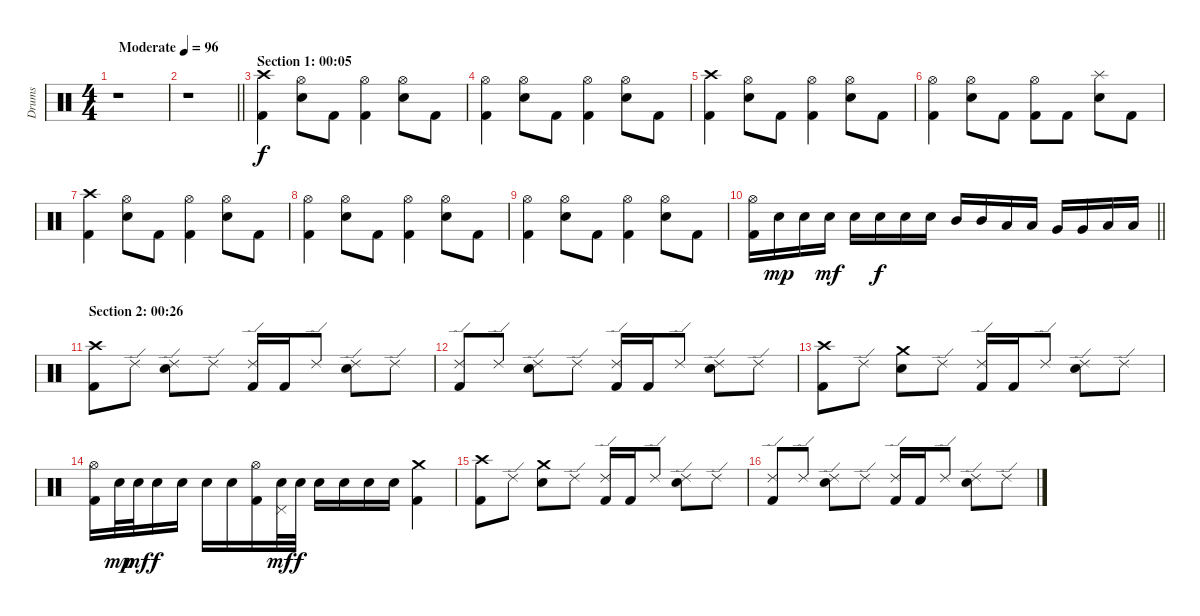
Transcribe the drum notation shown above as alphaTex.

\track ("Drums" "Drums") {instrument percussion}
\staff {score}
\articulation defaults
\ts (4 4)
\tempo (96 "Moderate")
\clef neutral
\ks c
r.1{dy f} |
\barLineRight lightlight
r.1 |
\section ("" "Section 1: 00:05")
("Crash high (hit)" "Kick (hit) 2").4 ("Hi-Hat (open)" "Electric Snare (hit)").8 "Kick (hit) 2".8 ("Hi-Hat (open)" "Kick (hit) 2").4 ("Hi-Hat (open)" "Electric Snare (hit)").8 "Kick (hit) 2".8 |
("Hi-Hat (open)" "Kick (hit) 2").4 ("Hi-Hat (open)" "Electric Snare (hit)").8 "Kick (hit) 2".8 ("Hi-Hat (open)" "Kick (hit) 2").4 ("Hi-Hat (open)" "Electric Snare (hit)").8 "Kick (hit) 2".8 |
("Crash high (hit)" "Kick (hit) 2").4 ("Hi-Hat (open)" "Electric Snare (hit)").8 "Kick (hit) 2".8 ("Hi-Hat (open)" "Kick (hit) 2").4 ("Hi-Hat (open)" "Electric Snare (hit)").8 "Kick (hit) 2".8 |
("Hi-Hat (open)" "Kick (hit) 2").4 ("Hi-Hat (open)" "Electric Snare (hit)").8 "Kick (hit) 2".8 ("Hi-Hat (open)" "Kick (hit) 2").8 "Kick (hit) 2".8 ("Splash (hit)" "Electric Snare (hit)").8 "Kick (hit) 2".8 |
("Crash high (hit)" "Kick (hit) 2").4 ("Hi-Hat (open)" "Electric Snare (hit)").8 "Kick (hit) 2".8 ("Hi-Hat (open)" "Kick (hit) 2").4 ("Hi-Hat (open)" "Electric Snare (hit)").8 "Kick (hit) 2".8 |
("Hi-Hat (open)" "Kick (hit) 2").4 ("Hi-Hat (open)" "Electric Snare (hit)").8 "Kick (hit) 2".8 ("Hi-Hat (open)" "Kick (hit) 2").4 ("Hi-Hat (open)" "Electric Snare (hit)").8 "Kick (hit) 2".8 |
("Hi-Hat (open)" "Kick (hit) 2").4 ("Hi-Hat (open)" "Electric Snare (hit)").8 "Kick (hit) 2".8 ("Hi-Hat (open)" "Kick (hit) 2").4 ("Hi-Hat (open)" "Electric Snare (hit)").8 "Kick (hit) 2".8 |
\barLineRight lightlight
("Hi-Hat (open)" "Kick (hit) 2").16 "Electric Snare (hit)".16{dy mp} "Electric Snare (hit)".16 "Electric Snare (hit)".16{dy mf} "Electric Snare (hit)".16 "Electric Snare (hit)".16{dy f} "Electric Snare (hit)".16 "Electric Snare (hit)".16 "Mid Tom (hit)".16 "Mid Tom (hit)".16 "Low Tom (hit)".16 "Low Tom (hit)".16 "Very Low Tom (hit)".16 "Very Low Tom (hit)".16 "Low Floor Tom (hit)".16 "Low Floor Tom (hit)".16 |
\section ("" "Section 2: 00:26")
("Crash high (hit)" "Kick (hit) 2").8 "Ride (edge) 2".8 ("Ride (edge) 2" "Electric Snare (hit)").8 "Ride (edge) 2".8 ("Ride (edge) 2" "Kick (hit) 2").16 "Kick (hit) 2".16 "Ride (edge) 2".8 ("Ride (edge) 2" "Electric Snare (hit)").8 "Ride (edge) 2".8 |
("Ride (edge) 2" "Kick (hit) 2").8 "Ride (edge) 2".8 ("Ride (edge) 2" "Electric Snare (hit)").8 "Ride (edge) 2".8 ("Ride (edge) 2" "Kick (hit) 2").16 "Kick (hit) 2".16 "Ride (edge) 2".8 ("Ride (edge) 2" "Electric Snare (hit)").8 "Ride (edge) 2".8 |
("Crash high (hit)" "Kick (hit) 2").8 "Ride (edge) 2".8 ("Crash medium (hit)" "Electric Snare (hit)").8 "Ride (edge) 2".8 ("Ride (edge) 2" "Kick (hit) 2").16 "Kick (hit) 2".16 "Ride (edge) 2".8 ("Ride (edge) 2" "Electric Snare (hit)").8 "Ride (edge) 2".8 |
("Hi-Hat (open)" "Kick (hit) 2").16 "Electric Snare (hit)".32{dy mp} "Electric Snare (hit)".32{dy mf} "Electric Snare (hit)".16{dy f} "Electric Snare (hit)".16 "Electric Snare (hit)".16 "Electric Snare (hit)".16 ("Hi-Hat (open)" "Kick (hit) 2").16 ("Pedal Hi-Hat (hit)" "Electric Snare (hit)").32{dy mf} "Electric Snare (hit)".32{dy f} "Electric Snare (hit)".16 "Electric Snare (hit)".16 "Electric Snare (hit)".16 "Electric Snare (hit)".16 ("Crash medium (hit)" "Kick (hit) 2").4 |
("Crash high (hit)" "Kick (hit) 2").8 "Ride (edge) 2".8 ("Crash medium (hit)" "Electric Snare (hit)").8 "Ride (edge) 2".8 ("Ride (edge) 2" "Kick (hit) 2").16 "Kick (hit) 2".16 "Ride (edge) 2".8 ("Ride (edge) 2" "Electric Snare (hit)").8 "Ride (edge) 2".8 |
("Ride (edge) 2" "Kick (hit) 2").8 "Ride (edge) 2".8 ("Ride (edge) 2" "Electric Snare (hit)").8 "Ride (edge) 2".8 ("Ride (edge) 2" "Kick (hit) 2").16 "Kick (hit) 2".16 "Ride (edge) 2".8 ("Ride (edge) 2" "Electric Snare (hit)").8 "Ride (edge) 2".8
